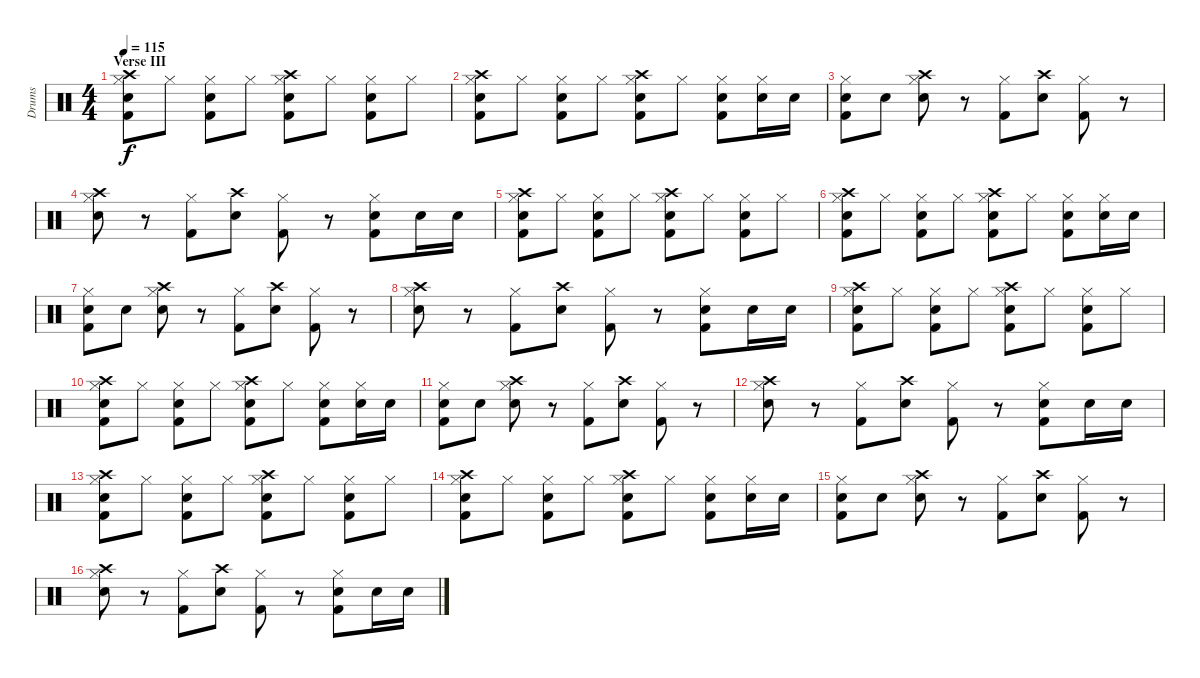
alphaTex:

\track ("Drums" "Drums") {instrument percussion}
\staff {score}
\articulation defaults
\ts (4 4)
\section ("" "Verse III")
\tempo 115
\clef neutral
\ks c
("Hi-Hat (closed)" "Kick (hit) 2" "Snare (hit) 2" "Crash high (hit)").8{dy f} "Hi-Hat (closed)".8 ("Hi-Hat (closed)" "Kick (hit) 2" "Snare (hit) 2").8 "Hi-Hat (closed)".8 ("Hi-Hat (closed)" "Kick (hit) 2" "Snare (hit) 2" "Crash high (hit)").8 "Hi-Hat (closed)".8 ("Hi-Hat (closed)" "Kick (hit) 2" "Snare (hit) 2").8 "Hi-Hat (closed)".8 |
("Hi-Hat (closed)" "Kick (hit) 2" "Snare (hit) 2" "Crash high (hit)").8 "Hi-Hat (closed)".8 ("Hi-Hat (closed)" "Kick (hit) 2" "Snare (hit) 2").8 "Hi-Hat (closed)".8 ("Hi-Hat (closed)" "Kick (hit) 2" "Snare (hit) 2" "Crash high (hit)").8 "Hi-Hat (closed)".8 ("Hi-Hat (closed)" "Kick (hit) 2" "Snare (hit) 2").8 ("Hi-Hat (closed)" "Snare (hit) 2").16 "Snare (hit) 2".16 |
("Hi-Hat (closed)" "Kick (hit) 2" "Snare (hit) 2").8 "Snare (hit) 2".8 ("Hi-Hat (closed)" "Crash high (hit)" "Snare (hit) 2").8 r.8 ("Hi-Hat (closed)" "Kick (hit) 2").8 ("Crash high (hit)" "Snare (hit) 2").8 ("Hi-Hat (closed)" "Kick (hit) 2").8 r.8 |
("Hi-Hat (closed)" "Crash high (hit)" "Snare (hit) 2").8 r.8 ("Hi-Hat (closed)" "Kick (hit) 2").8 ("Crash high (hit)" "Snare (hit) 2").8 ("Hi-Hat (closed)" "Kick (hit) 2").8 r.8 ("Hi-Hat (closed)" "Kick (hit) 2" "Snare (hit) 2").8 "Snare (hit) 2".16 "Snare (hit) 2".16 |
("Hi-Hat (closed)" "Kick (hit) 2" "Snare (hit) 2" "Crash high (hit)").8 "Hi-Hat (closed)".8 ("Hi-Hat (closed)" "Kick (hit) 2" "Snare (hit) 2").8 "Hi-Hat (closed)".8 ("Hi-Hat (closed)" "Kick (hit) 2" "Snare (hit) 2" "Crash high (hit)").8 "Hi-Hat (closed)".8 ("Hi-Hat (closed)" "Kick (hit) 2" "Snare (hit) 2").8 "Hi-Hat (closed)".8 |
("Hi-Hat (closed)" "Kick (hit) 2" "Snare (hit) 2" "Crash high (hit)").8 "Hi-Hat (closed)".8 ("Hi-Hat (closed)" "Kick (hit) 2" "Snare (hit) 2").8 "Hi-Hat (closed)".8 ("Hi-Hat (closed)" "Kick (hit) 2" "Snare (hit) 2" "Crash high (hit)").8 "Hi-Hat (closed)".8 ("Hi-Hat (closed)" "Kick (hit) 2" "Snare (hit) 2").8 ("Hi-Hat (closed)" "Snare (hit) 2").16 "Snare (hit) 2".16 |
("Hi-Hat (closed)" "Kick (hit) 2" "Snare (hit) 2").8 "Snare (hit) 2".8 ("Hi-Hat (closed)" "Crash high (hit)" "Snare (hit) 2").8 r.8 ("Hi-Hat (closed)" "Kick (hit) 2").8 ("Crash high (hit)" "Snare (hit) 2").8 ("Hi-Hat (closed)" "Kick (hit) 2").8 r.8 |
("Hi-Hat (closed)" "Crash high (hit)" "Snare (hit) 2").8 r.8 ("Hi-Hat (closed)" "Kick (hit) 2").8 ("Crash high (hit)" "Snare (hit) 2").8 ("Hi-Hat (closed)" "Kick (hit) 2").8 r.8 ("Hi-Hat (closed)" "Kick (hit) 2" "Snare (hit) 2").8 "Snare (hit) 2".16 "Snare (hit) 2".16 |
("Hi-Hat (closed)" "Kick (hit) 2" "Snare (hit) 2" "Crash high (hit)").8 "Hi-Hat (closed)".8 ("Hi-Hat (closed)" "Kick (hit) 2" "Snare (hit) 2").8 "Hi-Hat (closed)".8 ("Hi-Hat (closed)" "Kick (hit) 2" "Snare (hit) 2" "Crash high (hit)").8 "Hi-Hat (closed)".8 ("Hi-Hat (closed)" "Kick (hit) 2" "Snare (hit) 2").8 "Hi-Hat (closed)".8 |
("Hi-Hat (closed)" "Kick (hit) 2" "Snare (hit) 2" "Crash high (hit)").8 "Hi-Hat (closed)".8 ("Hi-Hat (closed)" "Kick (hit) 2" "Snare (hit) 2").8 "Hi-Hat (closed)".8 ("Hi-Hat (closed)" "Kick (hit) 2" "Snare (hit) 2" "Crash high (hit)").8 "Hi-Hat (closed)".8 ("Hi-Hat (closed)" "Kick (hit) 2" "Snare (hit) 2").8 ("Hi-Hat (closed)" "Snare (hit) 2").16 "Snare (hit) 2".16 |
("Hi-Hat (closed)" "Kick (hit) 2" "Snare (hit) 2").8 "Snare (hit) 2".8 ("Hi-Hat (closed)" "Crash high (hit)" "Snare (hit) 2").8 r.8 ("Hi-Hat (closed)" "Kick (hit) 2").8 ("Crash high (hit)" "Snare (hit) 2").8 ("Hi-Hat (closed)" "Kick (hit) 2").8 r.8 |
("Hi-Hat (closed)" "Crash high (hit)" "Snare (hit) 2").8 r.8 ("Hi-Hat (closed)" "Kick (hit) 2").8 ("Crash high (hit)" "Snare (hit) 2").8 ("Hi-Hat (closed)" "Kick (hit) 2").8 r.8 ("Hi-Hat (closed)" "Kick (hit) 2" "Snare (hit) 2").8 "Snare (hit) 2".16 "Snare (hit) 2".16 |
("Hi-Hat (closed)" "Kick (hit) 2" "Snare (hit) 2" "Crash high (hit)").8 "Hi-Hat (closed)".8 ("Hi-Hat (closed)" "Kick (hit) 2" "Snare (hit) 2").8 "Hi-Hat (closed)".8 ("Hi-Hat (closed)" "Kick (hit) 2" "Snare (hit) 2" "Crash high (hit)").8 "Hi-Hat (closed)".8 ("Hi-Hat (closed)" "Kick (hit) 2" "Snare (hit) 2").8 "Hi-Hat (closed)".8 |
("Hi-Hat (closed)" "Kick (hit) 2" "Snare (hit) 2" "Crash high (hit)").8 "Hi-Hat (closed)".8 ("Hi-Hat (closed)" "Kick (hit) 2" "Snare (hit) 2").8 "Hi-Hat (closed)".8 ("Hi-Hat (closed)" "Kick (hit) 2" "Snare (hit) 2" "Crash high (hit)").8 "Hi-Hat (closed)".8 ("Hi-Hat (closed)" "Kick (hit) 2" "Snare (hit) 2").8 ("Hi-Hat (closed)" "Snare (hit) 2").16 "Snare (hit) 2".16 |
("Hi-Hat (closed)" "Kick (hit) 2" "Snare (hit) 2").8 "Snare (hit) 2".8 ("Hi-Hat (closed)" "Crash high (hit)" "Snare (hit) 2").8 r.8 ("Hi-Hat (closed)" "Kick (hit) 2").8 ("Crash high (hit)" "Snare (hit) 2").8 ("Hi-Hat (closed)" "Kick (hit) 2").8 r.8 |
("Hi-Hat (closed)" "Crash high (hit)" "Snare (hit) 2").8 r.8 ("Hi-Hat (closed)" "Kick (hit) 2").8 ("Crash high (hit)" "Snare (hit) 2").8 ("Hi-Hat (closed)" "Kick (hit) 2").8 r.8 ("Hi-Hat (closed)" "Kick (hit) 2" "Snare (hit) 2").8 "Snare (hit) 2".16 "Snare (hit) 2".16
